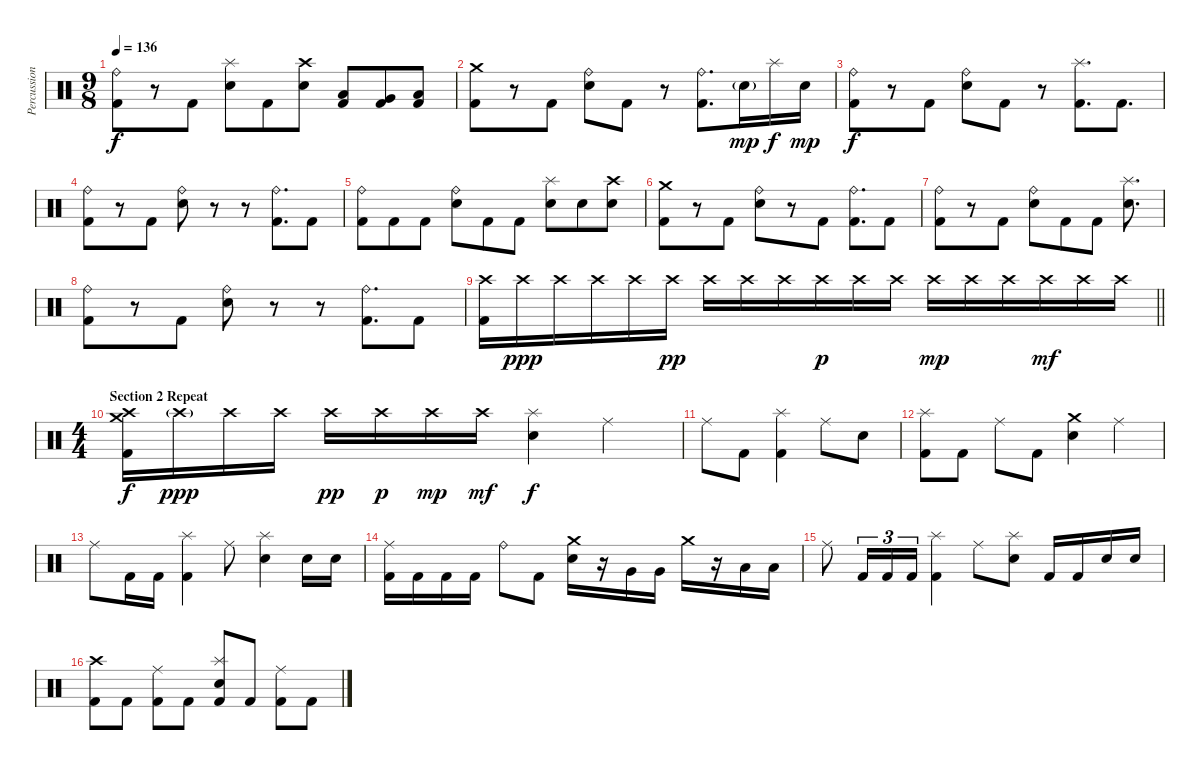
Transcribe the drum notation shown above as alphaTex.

\track ("Percussion" "Percussion") {instrument percussion}
\staff {score}
\articulation defaults
\ts (9 8)
\tempo 136
\clef neutral
\ks c
("Ride (bell)" "Kick (hit) 2").8{dy f} r.8 "Kick (hit) 2".8 ("Splash (hit)" "Electric Snare (hit)").8 "Kick (hit) 2".8 ("Crash high (hit)" "Electric Snare (hit)").8 ("Low Tom (hit)" "Kick (hit) 2").8 ("Very Low Tom (hit)" "Kick (hit) 2").8 ("Low Floor Tom (hit)" "Kick (hit) 2").8 |
("Crash medium (hit)" "Kick (hit) 2").8 r.8 "Kick (hit) 2".8 ("Ride (bell)" "Electric Snare (hit)").8 "Kick (hit) 2".8 r.8 ("Ride (bell)" "Kick (hit) 2").8{d} "Electric Snare (hit)"{g}.16{dy mp} "Splash (hit)".16{dy f} "Electric Snare (hit)".16{dy mp} |
("Ride (bell)" "Kick (hit) 2").8{dy f} r.8 "Kick (hit) 2".8 ("Ride (bell)" "Electric Snare (hit)").8 "Kick (hit) 2".8 r.8 ("Splash (hit)" "Kick (hit) 2").8{d} "Kick (hit) 2".8{d} |
("Ride (bell)" "Kick (hit) 2").8 r.8 "Kick (hit) 2".8 ("Ride (bell)" "Electric Snare (hit)").8 r.8 r.8 ("Ride (bell)" "Kick (hit) 2").8{d} "Kick (hit) 2".8 |
("Ride (bell)" "Kick (hit) 2").8 "Kick (hit) 2".8 "Kick (hit) 2".8 ("Ride (bell)" "Electric Snare (hit)").8 "Kick (hit) 2".8 "Kick (hit) 2".8 ("Splash (hit)" "Electric Snare (hit)").8 "Electric Snare (hit)".8 ("Crash high (hit)" "Electric Snare (hit)").8 |
("Crash medium (hit)" "Kick (hit) 2").8 r.8 "Kick (hit) 2".8 ("Ride (bell)" "Electric Snare (hit)").8 r.8 "Kick (hit) 2".8 ("Ride (bell)" "Kick (hit) 2").8{d} "Kick (hit) 2".8 |
("Ride (bell)" "Kick (hit) 2").8 r.8 "Kick (hit) 2".8 ("Ride (bell)" "Electric Snare (hit)").8 "Kick (hit) 2".8 "Kick (hit) 2".8 ("Splash (hit)" "Electric Snare (hit)").8{d} |
("Ride (bell)" "Kick (hit) 2").8 r.8 "Kick (hit) 2".8 ("Ride (bell)" "Electric Snare (hit)").8 r.8 r.8 ("Ride (bell)" "Kick (hit) 2").8{d} "Kick (hit) 2".8 |
\barLineRight lightlight
("Crash high (hit)" "Kick (hit) 2").16 "Crash high (hit)".16{dy ppp} "Crash high (hit)".16 "Crash high (hit)".16 "Crash high (hit)".16 "Crash high (hit)".16{dy pp} "Crash high (hit)".16 "Crash high (hit)".16 "Crash high (hit)".16 "Crash high (hit)".16{dy p} "Crash high (hit)".16 "Crash high (hit)".16 "Crash high (hit)".16{dy mp} "Crash high (hit)".16 "Crash high (hit)".16 "Crash high (hit)".16{dy mf} "Crash high (hit)".16 "Crash high (hit)".16 |
\ts (4 4)
\section ("" "Section 2 Repeat")
("Crash medium (hit)" "Crash high (hit)" "Kick (hit) 2").16{dy f} "Crash high (hit)"{g}.16{dy ppp} "Crash high (hit)".16 "Crash high (hit)".16 "Crash high (hit)".16{dy pp} "Crash high (hit)".16{dy p} "Crash high (hit)".16{dy mp} "Crash high (hit)".16{dy mf} ("Splash (hit)" "Electric Snare (hit)").4{dy f} "Ride (middle)".4 |
"Ride (middle)".8 "Kick (hit) 2".8 ("Splash (hit)" "Kick (hit) 2").4 "Ride (middle)".8 "Electric Snare (hit)".8 |
("Splash (hit)" "Kick (hit) 2").8 "Kick (hit) 2".8 "Ride (middle)".8 "Kick (hit) 2".8 ("Crash medium (hit)" "Electric Snare (hit)").4 "Ride (middle)".4 |
"Ride (middle)".8 "Kick (hit) 2".16 "Kick (hit) 2".16 ("Splash (hit)" "Kick (hit) 2").4 "Ride (middle)".8 ("Splash (hit)" "Electric Snare (hit)").4 "Electric Snare (hit)".16 "Electric Snare (hit)".16 |
("Ride (middle)" "Kick (hit) 2").16 "Kick (hit) 2".16 "Kick (hit) 2".16 "Kick (hit) 2".16 "Ride (bell)".8 "Kick (hit) 2".8 ("Crash medium (hit)" "Electric Snare (hit)").16 r.16 "Very Low Tom (hit)".16 "Very Low Tom (hit)".16 "Crash medium (hit)".16 r.16 "Low Floor Tom (hit)".16 "Low Floor Tom (hit)".16 |
"Ride (middle)".8 "Kick (hit) 2".16{tu (3 2)} "Kick (hit) 2".16{tu (3 2)} "Kick (hit) 2".16{tu (3 2)} ("Splash (hit)" "Kick (hit) 2").4 "Ride (middle)".8 ("Splash (hit)" "Electric Snare (hit)").8 "Kick (hit) 2".16 "Kick (hit) 2".16 "Electric Snare (hit)".16 "Electric Snare (hit)".16 |
("Crash high (hit)" "Kick (hit) 2").8 "Kick (hit) 2".8 ("Ride (middle)" "Kick (hit) 2").8 "Kick (hit) 2".8 ("Splash (hit)" "Electric Snare (hit)" "Kick (hit) 2").8 "Kick (hit) 2".8 ("Ride (middle)" "Kick (hit) 2").8 "Kick (hit) 2".8
